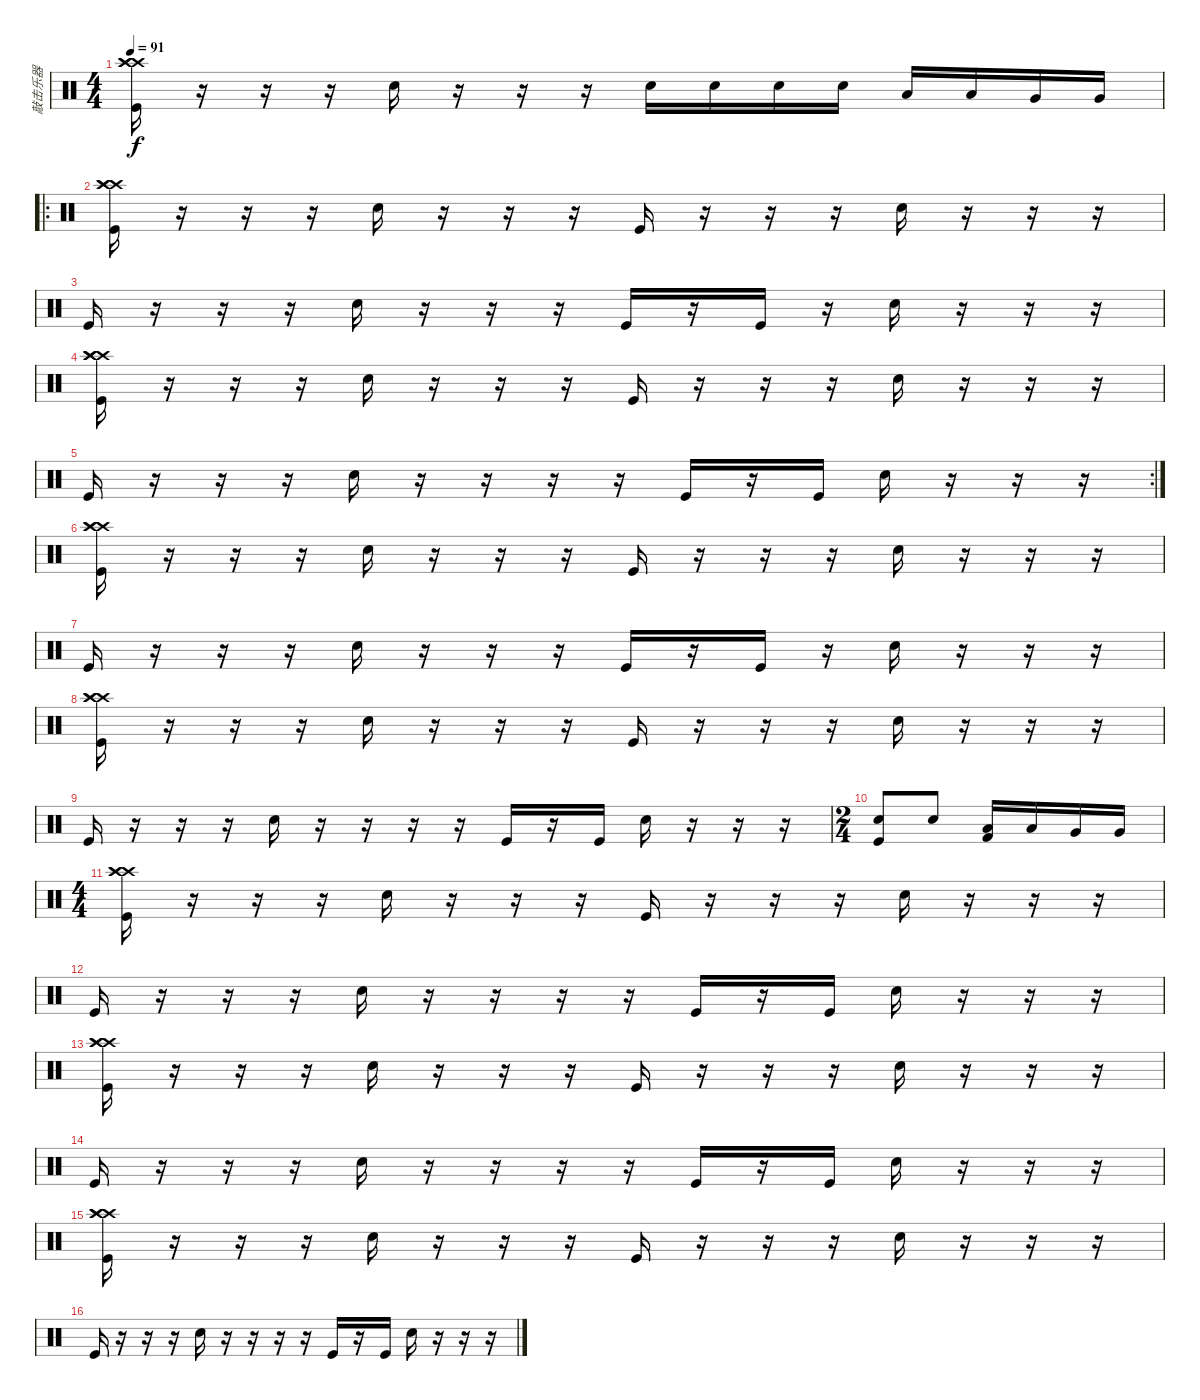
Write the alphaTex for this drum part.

\track ("敲击乐器" "敲击乐器") {instrument percussion}
\staff {score}
\articulation defaults
\ts (4 4)
\tempo 91
\clef neutral
\ks c
("Kick (hit)" "Crash high (hit)" "Crash high (hit)" "Crash high (hit)").16{dy f} r.16 r.16 r.16 "Electric Snare (hit)".16 r.16 r.16 r.16 "Electric Snare (hit)".16 "Electric Snare (hit)".16 "Electric Snare (hit)".16 "Electric Snare (hit)".16 "Low Tom (hit)".16 "Low Tom (hit)".16 "Very Low Tom (hit)".16 "Very Low Tom (hit)".16 |
\ro
("Kick (hit)" "Crash high (hit)" "Crash high (hit)" "Crash high (hit)").16 r.16 r.16 r.16 "Electric Snare (hit)".16 r.16 r.16 r.16 "Kick (hit)".16 r.16 r.16 r.16 "Electric Snare (hit)".16 r.16 r.16 r.16 |
"Kick (hit)".16 r.16 r.16 r.16 "Electric Snare (hit)".16 r.16 r.16 r.16 "Kick (hit)".16 r.16 "Kick (hit)".16 r.16 "Electric Snare (hit)".16 r.16 r.16 r.16 |
("Kick (hit)" "Crash high (hit)" "Crash high (hit)" "Crash high (hit)").16 r.16 r.16 r.16 "Electric Snare (hit)".16 r.16 r.16 r.16 "Kick (hit)".16 r.16 r.16 r.16 "Electric Snare (hit)".16 r.16 r.16 r.16 |
\rc 2 "Kick (hit)".16
r.16 r.16 r.16 "Electric Snare (hit)".16 r.16 r.16 r.16 r.16 "Kick (hit)".16 r.16 "Kick (hit)".16 "Electric Snare (hit)".16 r.16 r.16 r.16 |
("Kick (hit)" "Crash high (hit)" "Crash high (hit)" "Crash high (hit)").16 r.16 r.16 r.16 "Electric Snare (hit)".16 r.16 r.16 r.16 "Kick (hit)".16 r.16 r.16 r.16 "Electric Snare (hit)".16 r.16 r.16 r.16 |
"Kick (hit)".16 r.16 r.16 r.16 "Electric Snare (hit)".16 r.16 r.16 r.16 "Kick (hit)".16 r.16 "Kick (hit)".16 r.16 "Electric Snare (hit)".16 r.16 r.16 r.16 |
("Kick (hit)" "Crash high (hit)" "Crash high (hit)" "Crash high (hit)").16 r.16 r.16 r.16 "Electric Snare (hit)".16 r.16 r.16 r.16 "Kick (hit)".16 r.16 r.16 r.16 "Electric Snare (hit)".16 r.16 r.16 r.16 |
"Kick (hit)".16 r.16 r.16 r.16 "Electric Snare (hit)".16 r.16 r.16 r.16 r.16 "Kick (hit)".16 r.16 "Kick (hit)".16 "Electric Snare (hit)".16 r.16 r.16 r.16 |
\ts (2 4)
("Electric Snare (hit)" "Kick (hit)").8 "Electric Snare (hit)".8 ("Low Tom (hit)" "Kick (hit) 2").16 "Low Tom (hit)".16 "Very Low Tom (hit)".16 "Very Low Tom (hit)".16 |
\ts (4 4)
("Kick (hit)" "Crash high (hit)" "Crash high (hit)" "Crash high (hit)").16 r.16 r.16 r.16 "Electric Snare (hit)".16 r.16 r.16 r.16 "Kick (hit)".16 r.16 r.16 r.16 "Electric Snare (hit)".16 r.16 r.16 r.16 |
"Kick (hit)".16 r.16 r.16 r.16 "Electric Snare (hit)".16 r.16 r.16 r.16 r.16 "Kick (hit)".16 r.16 "Kick (hit)".16 "Electric Snare (hit)".16 r.16 r.16 r.16 |
("Kick (hit)" "Crash high (hit)" "Crash high (hit)" "Crash high (hit)").16 r.16 r.16 r.16 "Electric Snare (hit)".16 r.16 r.16 r.16 "Kick (hit)".16 r.16 r.16 r.16 "Electric Snare (hit)".16 r.16 r.16 r.16 |
"Kick (hit)".16 r.16 r.16 r.16 "Electric Snare (hit)".16 r.16 r.16 r.16 r.16 "Kick (hit)".16 r.16 "Kick (hit)".16 "Electric Snare (hit)".16 r.16 r.16 r.16 |
("Kick (hit)" "Crash high (hit)" "Crash high (hit)" "Crash high (hit)").16 r.16 r.16 r.16 "Electric Snare (hit)".16 r.16 r.16 r.16 "Kick (hit)".16 r.16 r.16 r.16 "Electric Snare (hit)".16 r.16 r.16 r.16 |
"Kick (hit)".16 r.16 r.16 r.16 "Electric Snare (hit)".16 r.16 r.16 r.16 r.16 "Kick (hit)".16 r.16 "Kick (hit)".16 "Electric Snare (hit)".16 r.16 r.16 r.16
